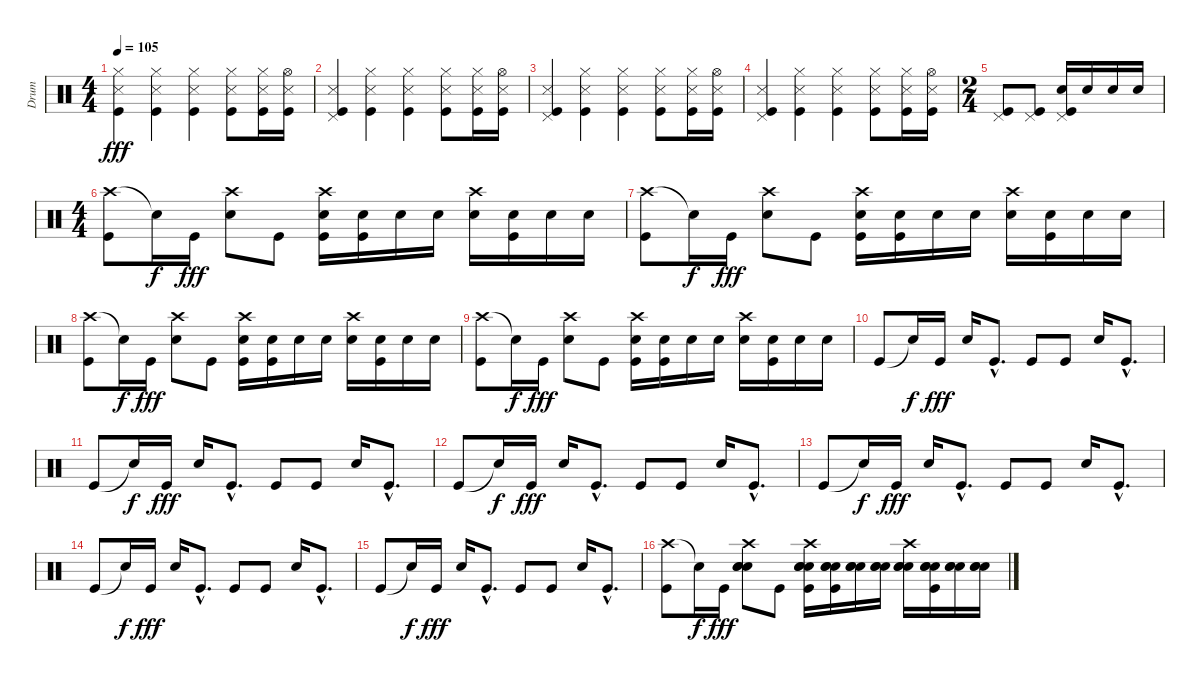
\track ("Drum" "Drum") {instrument percussion}
\staff {score}
\articulation defaults
\ts (4 4)
\tempo 105
\clef neutral
\ks c
("Hi-Hat (closed)" "Snare (side stick) 3" "Kick (hit)").4{dy fff} ("Hi-Hat (closed)" "Snare (side stick) 3" "Kick (hit)").4 ("Hi-Hat (closed)" "Snare (side stick) 3" "Kick (hit)").4 ("Hi-Hat (closed)" "Snare (side stick) 3" "Kick (hit)").8 ("Hi-Hat (closed)" "Snare (side stick) 3" "Kick (hit)").16 ("Hi-Hat (open)" "Snare (side stick) 3" "Kick (hit)").16 |
("Pedal Hi-Hat (hit)" "Snare (side stick) 3" "Kick (hit)").4 ("Hi-Hat (closed)" "Snare (side stick) 3" "Kick (hit)").4 ("Hi-Hat (closed)" "Snare (side stick) 3" "Kick (hit)").4 ("Hi-Hat (closed)" "Snare (side stick) 3" "Kick (hit)").8 ("Hi-Hat (closed)" "Snare (side stick) 3" "Kick (hit)").16 ("Hi-Hat (open)" "Snare (side stick) 3" "Kick (hit)").16 |
("Pedal Hi-Hat (hit)" "Snare (side stick) 3" "Kick (hit)").4 ("Hi-Hat (closed)" "Snare (side stick) 3" "Kick (hit)").4 ("Hi-Hat (closed)" "Snare (side stick) 3" "Kick (hit)").4 ("Hi-Hat (closed)" "Snare (side stick) 3" "Kick (hit)").8 ("Hi-Hat (closed)" "Snare (side stick) 3" "Kick (hit)").16 ("Hi-Hat (open)" "Snare (side stick) 3" "Kick (hit)").16 |
("Pedal Hi-Hat (hit)" "Snare (side stick) 3" "Kick (hit)").4 ("Hi-Hat (closed)" "Snare (side stick) 3" "Kick (hit)").4 ("Hi-Hat (closed)" "Snare (side stick) 3" "Kick (hit)").4 ("Hi-Hat (closed)" "Snare (side stick) 3" "Kick (hit)").8 ("Hi-Hat (closed)" "Snare (side stick) 3" "Kick (hit)").16 ("Hi-Hat (open)" "Snare (side stick) 3" "Kick (hit)").16 |
\ts (2 4)
("Pedal Hi-Hat (hit)" "Kick (hit)").8 ("Pedal Hi-Hat (hit)" "Kick (hit)").8 ("Pedal Hi-Hat (hit)" "Electric Snare (hit)" "Kick (hit)").16 "Electric Snare (hit)".16 "Electric Snare (hit)".16 "Electric Snare (hit)".16 |
\ts (4 4)
("Crash high (hit)" "Kick (hit)").8 "Snare (hit)"{t}.16{dy f} "Kick (hit)".16{dy fff} ("Crash high (hit)" "Electric Snare (hit)").8 "Kick (hit)".8 ("Crash high (hit)" "Electric Snare (hit)" "Kick (hit)").16 ("Electric Snare (hit)" "Kick (hit)").16 "Electric Snare (hit)".16 "Electric Snare (hit)".16 ("Crash high (hit)" "Electric Snare (hit)").16 ("Electric Snare (hit)" "Kick (hit)").16 "Electric Snare (hit)".16 "Electric Snare (hit)".16 |
("Crash high (hit)" "Kick (hit)").8 "Snare (hit)"{t}.16{dy f} "Kick (hit)".16{dy fff} ("Crash high (hit)" "Electric Snare (hit)").8 "Kick (hit)".8 ("Crash high (hit)" "Electric Snare (hit)" "Kick (hit)").16 ("Electric Snare (hit)" "Kick (hit)").16 "Electric Snare (hit)".16 "Electric Snare (hit)".16 ("Crash high (hit)" "Electric Snare (hit)").16 ("Electric Snare (hit)" "Kick (hit)").16 "Electric Snare (hit)".16 "Electric Snare (hit)".16 |
("Crash high (hit)" "Kick (hit)").8 "Snare (hit)"{t}.16{dy f} "Kick (hit)".16{dy fff} ("Crash high (hit)" "Electric Snare (hit)").8 "Kick (hit)".8 ("Crash high (hit)" "Electric Snare (hit)" "Kick (hit)").16 ("Electric Snare (hit)" "Kick (hit)").16 "Electric Snare (hit)".16 "Electric Snare (hit)".16 ("Crash high (hit)" "Electric Snare (hit)").16 ("Electric Snare (hit)" "Kick (hit)").16 "Electric Snare (hit)".16 "Electric Snare (hit)".16 |
("Crash high (hit)" "Kick (hit)").8 "Snare (hit)"{t}.16{dy f} "Kick (hit)".16{dy fff} ("Crash high (hit)" "Electric Snare (hit)").8 "Kick (hit)".8 ("Crash high (hit)" "Electric Snare (hit)" "Kick (hit)").16 ("Electric Snare (hit)" "Kick (hit)").16 "Electric Snare (hit)".16 "Electric Snare (hit)".16 ("Crash high (hit)" "Electric Snare (hit)").16 ("Electric Snare (hit)" "Kick (hit)").16 "Electric Snare (hit)".16 "Electric Snare (hit)".16 |
"Kick (hit)".8 "Snare (hit)"{t}.16{dy f} "Kick (hit)".16{dy fff} "Electric Snare (hit)".16 "Kick (hit)"{hac}.8{d} "Kick (hit)".8 "Kick (hit)".8 "Electric Snare (hit)".16 "Kick (hit)"{hac}.8{d} |
"Kick (hit)".8 "Snare (hit)"{t}.16{dy f} "Kick (hit)".16{dy fff} "Electric Snare (hit)".16 "Kick (hit)"{hac}.8{d} "Kick (hit)".8 "Kick (hit)".8 "Electric Snare (hit)".16 "Kick (hit)"{hac}.8{d} |
"Kick (hit)".8 "Snare (hit)"{t}.16{dy f} "Kick (hit)".16{dy fff} "Electric Snare (hit)".16 "Kick (hit)"{hac}.8{d} "Kick (hit)".8 "Kick (hit)".8 "Electric Snare (hit)".16 "Kick (hit)"{hac}.8{d} |
"Kick (hit)".8 "Snare (hit)"{t}.16{dy f} "Kick (hit)".16{dy fff} "Electric Snare (hit)".16 "Kick (hit)"{hac}.8{d} "Kick (hit)".8 "Kick (hit)".8 "Electric Snare (hit)".16 "Kick (hit)"{hac}.8{d} |
"Kick (hit)".8 "Snare (hit)"{t}.16{dy f} "Kick (hit)".16{dy fff} "Electric Snare (hit)".16 "Kick (hit)"{hac}.8{d} "Kick (hit)".8 "Kick (hit)".8 "Electric Snare (hit)".16 "Kick (hit)"{hac}.8{d} |
"Kick (hit)".8 "Snare (hit)"{t}.16{dy f} "Kick (hit)".16{dy fff} "Electric Snare (hit)".16 "Kick (hit)"{hac}.8{d} "Kick (hit)".8 "Kick (hit)".8 "Electric Snare (hit)".16 "Kick (hit)"{hac}.8{d} |
("Crash high (hit)" "Kick (hit)").8 "Snare (hit)"{t}.16{dy f} "Kick (hit)".16{dy fff} ("Crash high (hit)" "Electric Snare (hit)" "Electric Snare (hit)" "Electric Snare (hit)").8 "Kick (hit)".8 ("Crash high (hit)" "Electric Snare (hit)" "Electric Snare (hit)" "Electric Snare (hit)" "Kick (hit)").16 ("Electric Snare (hit)" "Electric Snare (hit)" "Electric Snare (hit)" "Kick (hit)").16 ("Electric Snare (hit)" "Electric Snare (hit)" "Electric Snare (hit)").16 ("Electric Snare (hit)" "Electric Snare (hit)" "Electric Snare (hit)").16 ("Crash high (hit)" "Electric Snare (hit)" "Electric Snare (hit)" "Electric Snare (hit)").16 ("Electric Snare (hit)" "Electric Snare (hit)" "Electric Snare (hit)" "Kick (hit)").16 ("Electric Snare (hit)" "Electric Snare (hit)" "Electric Snare (hit)").16 ("Electric Snare (hit)" "Electric Snare (hit)" "Electric Snare (hit)").16
